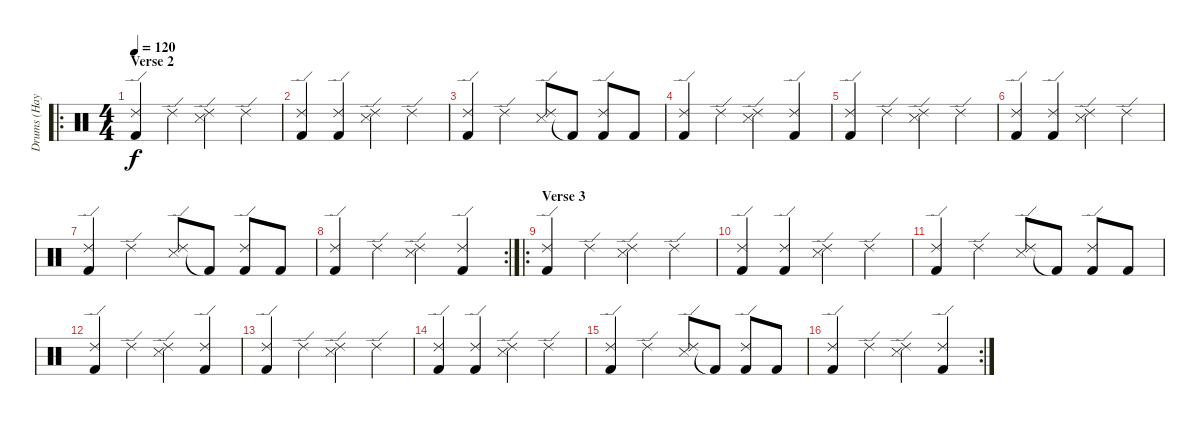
\track ("Drums (Hayden)" "Drums (Hay") {instrument percussion}
\staff {score}
\articulation defaults
\ro
\ts (4 4)
\section ("" "Verse 2")
\tempo 120
\clef neutral
\ks c
("Ride (edge) 2" "Kick (hit) 2").4{dy f} "Ride (edge) 2".4 ("Ride (edge) 2" "Snare (side stick) 3").4 "Ride (edge) 2".4 |
("Ride (edge) 2" "Kick (hit) 2").4 ("Ride (edge) 2" "Kick (hit) 2").4 ("Ride (edge) 2" "Snare (side stick) 3").4 "Ride (edge) 2".4 |
("Ride (edge) 2" "Kick (hit) 2").4 "Ride (edge) 2".4 ("Ride (edge) 2" "Snare (side stick) 3").8 "Kick (hit) 2"{t}.8 ("Ride (edge) 2" "Kick (hit) 2").8 "Kick (hit) 2".8 |
("Ride (edge) 2" "Kick (hit) 2").4 "Ride (edge) 2".4 ("Ride (edge) 2" "Snare (side stick) 3").4 ("Ride (edge) 2" "Kick (hit) 2").4 |
("Ride (edge) 2" "Kick (hit) 2").4 "Ride (edge) 2".4 ("Ride (edge) 2" "Snare (side stick) 3").4 "Ride (edge) 2".4 |
("Ride (edge) 2" "Kick (hit) 2").4 ("Ride (edge) 2" "Kick (hit) 2").4 ("Ride (edge) 2" "Snare (side stick) 3").4 "Ride (edge) 2".4 |
("Ride (edge) 2" "Kick (hit) 2").4 "Ride (edge) 2".4 ("Ride (edge) 2" "Snare (side stick) 3").8 "Kick (hit) 2"{t}.8 ("Ride (edge) 2" "Kick (hit) 2").8 "Kick (hit) 2".8 |
\rc 2
("Ride (edge) 2" "Kick (hit) 2").4 "Ride (edge) 2".4 ("Ride (edge) 2" "Snare (side stick) 3").4 ("Ride (edge) 2" "Kick (hit) 2").4 |
\ro
\section ("" "Verse 3")
("Ride (edge) 2" "Kick (hit) 2").4 "Ride (edge) 2".4 ("Ride (edge) 2" "Snare (side stick) 3").4 "Ride (edge) 2".4 |
("Ride (edge) 2" "Kick (hit) 2").4 ("Ride (edge) 2" "Kick (hit) 2").4 ("Ride (edge) 2" "Snare (side stick) 3").4 "Ride (edge) 2".4 |
("Ride (edge) 2" "Kick (hit) 2").4 "Ride (edge) 2".4 ("Ride (edge) 2" "Snare (side stick) 3").8 "Kick (hit) 2"{t}.8 ("Ride (edge) 2" "Kick (hit) 2").8 "Kick (hit) 2".8 |
("Ride (edge) 2" "Kick (hit) 2").4 "Ride (edge) 2".4 ("Ride (edge) 2" "Snare (side stick) 3").4 ("Ride (edge) 2" "Kick (hit) 2").4 |
("Ride (edge) 2" "Kick (hit) 2").4 "Ride (edge) 2".4 ("Ride (edge) 2" "Snare (side stick) 3").4 "Ride (edge) 2".4 |
("Ride (edge) 2" "Kick (hit) 2").4 ("Ride (edge) 2" "Kick (hit) 2").4 ("Ride (edge) 2" "Snare (side stick) 3").4 "Ride (edge) 2".4 |
("Ride (edge) 2" "Kick (hit) 2").4 "Ride (edge) 2".4 ("Ride (edge) 2" "Snare (side stick) 3").8 "Kick (hit) 2"{t}.8 ("Ride (edge) 2" "Kick (hit) 2").8 "Kick (hit) 2".8 |
\rc 2
("Ride (edge) 2" "Kick (hit) 2").4 "Ride (edge) 2".4 ("Ride (edge) 2" "Snare (side stick) 3").4 ("Ride (edge) 2" "Kick (hit) 2").4
